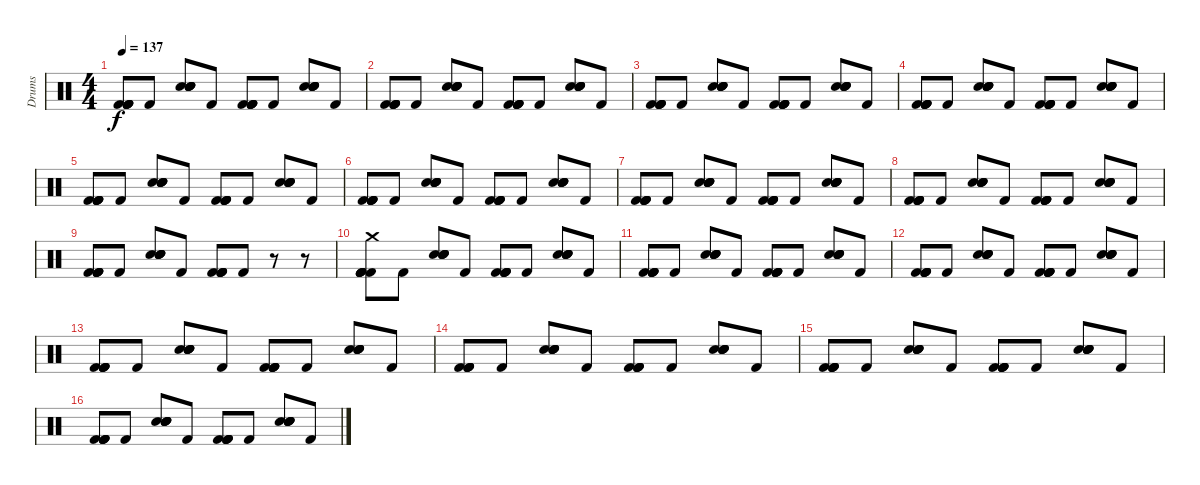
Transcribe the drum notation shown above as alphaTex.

\track ("Drums" "Drums") {instrument percussion}
\staff {score}
\articulation defaults
\ts (4 4)
\tempo 137
\clef neutral
\ks c
("Kick (hit) 2" "Kick (hit) 2" "Kick (hit) 2" "Kick (hit) 2" "Kick (hit) 2").8{dy f} "Kick (hit) 2".8 ("Snare (hit) 2" "Snare (hit) 2" "Snare (hit) 2" "Snare (hit) 2" "Snare (hit) 2").8 "Kick (hit) 2".8 ("Kick (hit) 2" "Kick (hit) 2" "Kick (hit) 2" "Kick (hit) 2" "Kick (hit) 2").8 "Kick (hit) 2".8 ("Snare (hit) 2" "Snare (hit) 2" "Snare (hit) 2" "Snare (hit) 2" "Snare (hit) 2").8 "Kick (hit) 2".8 |
("Kick (hit) 2" "Kick (hit) 2" "Kick (hit) 2" "Kick (hit) 2" "Kick (hit) 2").8 "Kick (hit) 2".8 ("Snare (hit) 2" "Snare (hit) 2" "Snare (hit) 2" "Snare (hit) 2" "Snare (hit) 2").8 "Kick (hit) 2".8 ("Kick (hit) 2" "Kick (hit) 2" "Kick (hit) 2" "Kick (hit) 2" "Kick (hit) 2").8 "Kick (hit) 2".8 ("Snare (hit) 2" "Snare (hit) 2" "Snare (hit) 2" "Snare (hit) 2" "Snare (hit) 2").8 "Kick (hit) 2".8 |
("Kick (hit) 2" "Kick (hit) 2" "Kick (hit) 2" "Kick (hit) 2" "Kick (hit) 2").8 "Kick (hit) 2".8 ("Snare (hit) 2" "Snare (hit) 2" "Snare (hit) 2" "Snare (hit) 2" "Snare (hit) 2").8 "Kick (hit) 2".8 ("Kick (hit) 2" "Kick (hit) 2" "Kick (hit) 2" "Kick (hit) 2" "Kick (hit) 2").8 "Kick (hit) 2".8 ("Snare (hit) 2" "Snare (hit) 2" "Snare (hit) 2" "Snare (hit) 2" "Snare (hit) 2").8 "Kick (hit) 2".8 |
("Kick (hit) 2" "Kick (hit) 2" "Kick (hit) 2" "Kick (hit) 2" "Kick (hit) 2").8 "Kick (hit) 2".8 ("Snare (hit) 2" "Snare (hit) 2" "Snare (hit) 2" "Snare (hit) 2" "Snare (hit) 2").8 "Kick (hit) 2".8 ("Kick (hit) 2" "Kick (hit) 2" "Kick (hit) 2" "Kick (hit) 2" "Kick (hit) 2").8 "Kick (hit) 2".8 ("Snare (hit) 2" "Snare (hit) 2" "Snare (hit) 2" "Snare (hit) 2" "Snare (hit) 2").8 "Kick (hit) 2".8 |
("Kick (hit) 2" "Kick (hit) 2" "Kick (hit) 2" "Kick (hit) 2" "Kick (hit) 2").8 "Kick (hit) 2".8 ("Snare (hit) 2" "Snare (hit) 2" "Snare (hit) 2" "Snare (hit) 2" "Snare (hit) 2").8 "Kick (hit) 2".8 ("Kick (hit) 2" "Kick (hit) 2" "Kick (hit) 2" "Kick (hit) 2" "Kick (hit) 2").8 "Kick (hit) 2".8 ("Snare (hit) 2" "Snare (hit) 2" "Snare (hit) 2" "Snare (hit) 2" "Snare (hit) 2").8 "Kick (hit) 2".8 |
("Kick (hit) 2" "Kick (hit) 2" "Kick (hit) 2" "Kick (hit) 2" "Kick (hit) 2").8 "Kick (hit) 2".8 ("Snare (hit) 2" "Snare (hit) 2" "Snare (hit) 2" "Snare (hit) 2" "Snare (hit) 2").8 "Kick (hit) 2".8 ("Kick (hit) 2" "Kick (hit) 2" "Kick (hit) 2" "Kick (hit) 2" "Kick (hit) 2").8 "Kick (hit) 2".8 ("Snare (hit) 2" "Snare (hit) 2" "Snare (hit) 2" "Snare (hit) 2" "Snare (hit) 2").8 "Kick (hit) 2".8 |
("Kick (hit) 2" "Kick (hit) 2" "Kick (hit) 2" "Kick (hit) 2" "Kick (hit) 2").8 "Kick (hit) 2".8 ("Snare (hit) 2" "Snare (hit) 2" "Snare (hit) 2" "Snare (hit) 2" "Snare (hit) 2").8 "Kick (hit) 2".8 ("Kick (hit) 2" "Kick (hit) 2" "Kick (hit) 2" "Kick (hit) 2" "Kick (hit) 2").8 "Kick (hit) 2".8 ("Snare (hit) 2" "Snare (hit) 2" "Snare (hit) 2" "Snare (hit) 2" "Snare (hit) 2").8 "Kick (hit) 2".8 |
("Kick (hit) 2" "Kick (hit) 2" "Kick (hit) 2" "Kick (hit) 2" "Kick (hit) 2").8 "Kick (hit) 2".8 ("Snare (hit) 2" "Snare (hit) 2" "Snare (hit) 2" "Snare (hit) 2" "Snare (hit) 2").8 "Kick (hit) 2".8 ("Kick (hit) 2" "Kick (hit) 2" "Kick (hit) 2" "Kick (hit) 2" "Kick (hit) 2").8 "Kick (hit) 2".8 ("Snare (hit) 2" "Snare (hit) 2" "Snare (hit) 2" "Snare (hit) 2" "Snare (hit) 2").8 "Kick (hit) 2".8 |
("Kick (hit) 2" "Kick (hit) 2" "Kick (hit) 2" "Kick (hit) 2" "Kick (hit) 2").8 "Kick (hit) 2".8 ("Snare (hit) 2" "Snare (hit) 2" "Snare (hit) 2" "Snare (hit) 2" "Snare (hit) 2").8 "Kick (hit) 2".8 ("Kick (hit) 2" "Kick (hit) 2" "Kick (hit) 2" "Kick (hit) 2" "Kick (hit) 2").8 "Kick (hit) 2".8 r.8 r.8 |
("Crash medium (hit)" "Kick (hit) 2" "Kick (hit) 2" "Kick (hit) 2" "Kick (hit) 2" "Kick (hit) 2").8 "Kick (hit) 2".8 ("Snare (hit) 2" "Snare (hit) 2" "Snare (hit) 2" "Snare (hit) 2" "Snare (hit) 2").8 "Kick (hit) 2".8 ("Kick (hit) 2" "Kick (hit) 2" "Kick (hit) 2" "Kick (hit) 2" "Kick (hit) 2").8 "Kick (hit) 2".8 ("Snare (hit) 2" "Snare (hit) 2" "Snare (hit) 2" "Snare (hit) 2" "Snare (hit) 2").8 "Kick (hit) 2".8 |
("Kick (hit) 2" "Kick (hit) 2" "Kick (hit) 2" "Kick (hit) 2" "Kick (hit) 2").8 "Kick (hit) 2".8 ("Snare (hit) 2" "Snare (hit) 2" "Snare (hit) 2" "Snare (hit) 2" "Snare (hit) 2").8 "Kick (hit) 2".8 ("Kick (hit) 2" "Kick (hit) 2" "Kick (hit) 2" "Kick (hit) 2" "Kick (hit) 2").8 "Kick (hit) 2".8 ("Snare (hit) 2" "Snare (hit) 2" "Snare (hit) 2" "Snare (hit) 2" "Snare (hit) 2").8 "Kick (hit) 2".8 |
("Kick (hit) 2" "Kick (hit) 2" "Kick (hit) 2" "Kick (hit) 2" "Kick (hit) 2").8 "Kick (hit) 2".8 ("Snare (hit) 2" "Snare (hit) 2" "Snare (hit) 2" "Snare (hit) 2" "Snare (hit) 2").8 "Kick (hit) 2".8 ("Kick (hit) 2" "Kick (hit) 2" "Kick (hit) 2" "Kick (hit) 2" "Kick (hit) 2").8 "Kick (hit) 2".8 ("Snare (hit) 2" "Snare (hit) 2" "Snare (hit) 2" "Snare (hit) 2" "Snare (hit) 2").8 "Kick (hit) 2".8 |
("Kick (hit) 2" "Kick (hit) 2" "Kick (hit) 2" "Kick (hit) 2" "Kick (hit) 2").8 "Kick (hit) 2".8 ("Snare (hit) 2" "Snare (hit) 2" "Snare (hit) 2" "Snare (hit) 2" "Snare (hit) 2").8 "Kick (hit) 2".8 ("Kick (hit) 2" "Kick (hit) 2" "Kick (hit) 2" "Kick (hit) 2" "Kick (hit) 2").8 "Kick (hit) 2".8 ("Snare (hit) 2" "Snare (hit) 2" "Snare (hit) 2" "Snare (hit) 2" "Snare (hit) 2").8 "Kick (hit) 2".8 |
("Kick (hit) 2" "Kick (hit) 2" "Kick (hit) 2" "Kick (hit) 2" "Kick (hit) 2").8 "Kick (hit) 2".8 ("Snare (hit) 2" "Snare (hit) 2" "Snare (hit) 2" "Snare (hit) 2" "Snare (hit) 2").8 "Kick (hit) 2".8 ("Kick (hit) 2" "Kick (hit) 2" "Kick (hit) 2" "Kick (hit) 2" "Kick (hit) 2").8 "Kick (hit) 2".8 ("Snare (hit) 2" "Snare (hit) 2" "Snare (hit) 2" "Snare (hit) 2" "Snare (hit) 2").8 "Kick (hit) 2".8 |
("Kick (hit) 2" "Kick (hit) 2" "Kick (hit) 2" "Kick (hit) 2" "Kick (hit) 2").8 "Kick (hit) 2".8 ("Snare (hit) 2" "Snare (hit) 2" "Snare (hit) 2" "Snare (hit) 2" "Snare (hit) 2").8 "Kick (hit) 2".8 ("Kick (hit) 2" "Kick (hit) 2" "Kick (hit) 2" "Kick (hit) 2" "Kick (hit) 2").8 "Kick (hit) 2".8 ("Snare (hit) 2" "Snare (hit) 2" "Snare (hit) 2" "Snare (hit) 2" "Snare (hit) 2").8 "Kick (hit) 2".8 |
("Kick (hit) 2" "Kick (hit) 2" "Kick (hit) 2" "Kick (hit) 2" "Kick (hit) 2").8 "Kick (hit) 2".8 ("Snare (hit) 2" "Snare (hit) 2" "Snare (hit) 2" "Snare (hit) 2" "Snare (hit) 2").8 "Kick (hit) 2".8 ("Kick (hit) 2" "Kick (hit) 2" "Kick (hit) 2" "Kick (hit) 2" "Kick (hit) 2").8 "Kick (hit) 2".8 ("Snare (hit) 2" "Snare (hit) 2" "Snare (hit) 2" "Snare (hit) 2" "Snare (hit) 2").8 "Kick (hit) 2".8
